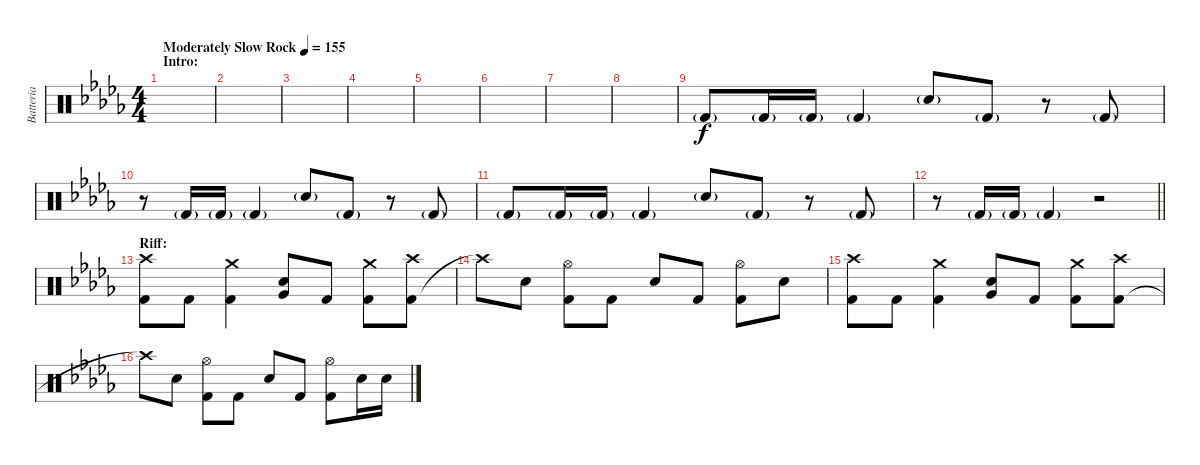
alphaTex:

\track ("Batteria" "Batteria") {instrument percussion}
\staff {score}
\articulation defaults
\ts (4 4)
\section ("" "Intro:")
\tempo (155 "Moderately Slow Rock")
\clef neutral
\ks bbminor
|
|
|
|
|
|
|
|
"Kick (hit) 2"{g}.8 "Kick (hit) 2"{g}.16 "Kick (hit) 2"{g}.16 "Kick (hit) 2"{g}.4 "Snare (hit) 2"{g}.8 "Kick (hit) 2"{g}.8 r.8 "Kick (hit) 2"{g}.8 |
r.8 "Kick (hit) 2"{g}.16 "Kick (hit) 2"{g}.16 "Kick (hit) 2"{g}.4 "Snare (hit) 2"{g}.8 "Kick (hit) 2"{g}.8 r.8 "Kick (hit) 2"{g}.8 |
"Kick (hit) 2"{g}.8 "Kick (hit) 2"{g}.16 "Kick (hit) 2"{g}.16 "Kick (hit) 2"{g}.4 "Snare (hit) 2"{g}.8 "Kick (hit) 2"{g}.8 r.8 "Kick (hit) 2"{g}.8 |
\barLineRight lightlight
r.8 "Kick (hit) 2"{g}.16 "Kick (hit) 2"{g}.16 "Kick (hit) 2"{g}.4 r.2 |
\section ("" "Riff:")
("Kick (hit) 2" "Crash high (hit)").8{dy f} "Kick (hit) 2".8 ("Kick (hit) 2" "Crash medium (hit)").4 ("Snare (hit) 2" "Very Low Tom (hit)").8 "Kick (hit) 2".8 ("Kick (hit) 2" "Crash medium (hit)").8 ("Kick (hit) 2" "Crash high (hit)").8 |
"Crash high (hit)"{t}.8 "Snare (hit) 2".8 ("Kick (hit) 2" "Hi-Hat (open)").8 "Kick (hit) 2".8 "Snare (hit) 2".8 "Kick (hit) 2".8 ("Kick (hit) 2" "Hi-Hat (open)").8 "Snare (hit) 2".8 |
("Kick (hit) 2" "Crash high (hit)").8 "Kick (hit) 2".8 ("Kick (hit) 2" "Crash medium (hit)").4 ("Snare (hit) 2" "Very Low Tom (hit)").8 "Kick (hit) 2".8 ("Kick (hit) 2" "Crash medium (hit)").8 ("Kick (hit) 2" "Crash high (hit)").8 |
"Crash high (hit)"{t}.8 "Snare (hit) 2".8 ("Kick (hit) 2" "Hi-Hat (open)").8 "Kick (hit) 2".8 "Snare (hit) 2".8 "Kick (hit) 2".8 ("Kick (hit) 2" "Hi-Hat (open)").8 "Snare (hit) 2".16 "Snare (hit) 2".16
